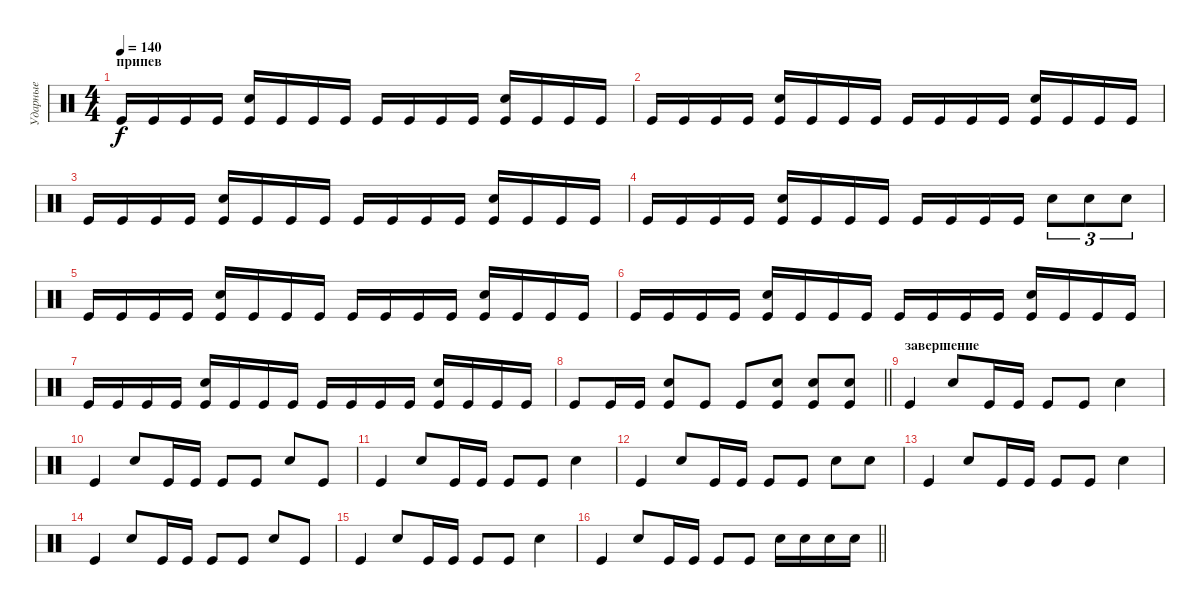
\track ("Ударные" "Ударные") {instrument percussion}
\staff {score}
\articulation defaults
\ts (4 4)
\section ("" "припев")
\tempo 140
\clef neutral
\ks c "Kick (hit)".16{dy f} "Kick (hit)".16 "Kick (hit)".16 "Kick (hit)".16
("Snare (hit) 2" "Kick (hit)").16 "Kick (hit)".16 "Kick (hit)".16 "Kick (hit)".16 "Kick (hit)".16 "Kick (hit)".16 "Kick (hit)".16 "Kick (hit)".16 ("Kick (hit)" "Snare (hit) 2").16 "Kick (hit)".16 "Kick (hit)".16 "Kick (hit)".16 |
"Kick (hit)".16 "Kick (hit)".16 "Kick (hit)".16 "Kick (hit)".16 ("Snare (hit) 2" "Kick (hit)").16 "Kick (hit)".16 "Kick (hit)".16 "Kick (hit)".16 "Kick (hit)".16 "Kick (hit)".16 "Kick (hit)".16 "Kick (hit)".16 ("Kick (hit)" "Snare (hit) 2").16 "Kick (hit)".16 "Kick (hit)".16 "Kick (hit)".16 |
"Kick (hit)".16 "Kick (hit)".16 "Kick (hit)".16 "Kick (hit)".16 ("Snare (hit) 2" "Kick (hit)").16 "Kick (hit)".16 "Kick (hit)".16 "Kick (hit)".16 "Kick (hit)".16 "Kick (hit)".16 "Kick (hit)".16 "Kick (hit)".16 ("Kick (hit)" "Snare (hit) 2").16 "Kick (hit)".16 "Kick (hit)".16 "Kick (hit)".16 |
"Kick (hit)".16 "Kick (hit)".16 "Kick (hit)".16 "Kick (hit)".16 ("Snare (hit) 2" "Kick (hit)").16 "Kick (hit)".16 "Kick (hit)".16 "Kick (hit)".16 "Kick (hit)".16 "Kick (hit)".16 "Kick (hit)".16 "Kick (hit)".16 "Snare (hit) 2".8{tu (3 2)} "Snare (hit) 2".8{tu (3 2)} "Snare (hit) 2".8{tu (3 2)} |
"Kick (hit)".16 "Kick (hit)".16 "Kick (hit)".16 "Kick (hit)".16 ("Snare (hit) 2" "Kick (hit)").16 "Kick (hit)".16 "Kick (hit)".16 "Kick (hit)".16 "Kick (hit)".16 "Kick (hit)".16 "Kick (hit)".16 "Kick (hit)".16 ("Kick (hit)" "Snare (hit) 2").16 "Kick (hit)".16 "Kick (hit)".16 "Kick (hit)".16 |
"Kick (hit)".16 "Kick (hit)".16 "Kick (hit)".16 "Kick (hit)".16 ("Snare (hit) 2" "Kick (hit)").16 "Kick (hit)".16 "Kick (hit)".16 "Kick (hit)".16 "Kick (hit)".16 "Kick (hit)".16 "Kick (hit)".16 "Kick (hit)".16 ("Kick (hit)" "Snare (hit) 2").16 "Kick (hit)".16 "Kick (hit)".16 "Kick (hit)".16 |
"Kick (hit)".16 "Kick (hit)".16 "Kick (hit)".16 "Kick (hit)".16 ("Snare (hit) 2" "Kick (hit)").16 "Kick (hit)".16 "Kick (hit)".16 "Kick (hit)".16 "Kick (hit)".16 "Kick (hit)".16 "Kick (hit)".16 "Kick (hit)".16 ("Kick (hit)" "Snare (hit) 2").16 "Kick (hit)".16 "Kick (hit)".16 "Kick (hit)".16 |
\barLineRight lightlight "Kick (hit)".8 "Kick (hit)".16 "Kick (hit)".16
("Kick (hit)" "Snare (hit) 2").8 "Kick (hit)".8 "Kick (hit)".8 ("Kick (hit)" "Snare (hit) 2").8 ("Kick (hit)" "Snare (hit) 2").8 ("Kick (hit)" "Snare (hit) 2").8 |
\section ("" "завершение")
"Kick (hit)".4 "Snare (hit) 2".8 "Kick (hit)".16 "Kick (hit)".16 "Kick (hit)".8 "Kick (hit)".8 "Snare (hit) 2".4 |
"Kick (hit)".4 "Snare (hit) 2".8 "Kick (hit)".16 "Kick (hit)".16 "Kick (hit)".8 "Kick (hit)".8 "Snare (hit) 2".8 "Kick (hit)".8 |
"Kick (hit)".4 "Snare (hit) 2".8 "Kick (hit)".16 "Kick (hit)".16 "Kick (hit)".8 "Kick (hit)".8 "Snare (hit) 2".4 |
"Kick (hit)".4 "Snare (hit) 2".8 "Kick (hit)".16 "Kick (hit)".16 "Kick (hit)".8 "Kick (hit)".8 "Snare (hit) 2".8 "Snare (hit) 2".8 |
"Kick (hit)".4 "Snare (hit) 2".8 "Kick (hit)".16 "Kick (hit)".16 "Kick (hit)".8 "Kick (hit)".8 "Snare (hit) 2".4 |
"Kick (hit)".4 "Snare (hit) 2".8 "Kick (hit)".16 "Kick (hit)".16 "Kick (hit)".8 "Kick (hit)".8 "Snare (hit) 2".8 "Kick (hit)".8 |
"Kick (hit)".4 "Snare (hit) 2".8 "Kick (hit)".16 "Kick (hit)".16 "Kick (hit)".8 "Kick (hit)".8 "Snare (hit) 2".4 |
\barLineRight lightlight "Kick (hit)".4 "Snare (hit) 2".8 "Kick (hit)".16 "Kick (hit)".16 "Kick (hit)".8 "Kick (hit)".8 "Snare (hit) 2".16 "Snare (hit) 2".16 "Snare (hit) 2".16 "Snare (hit) 2".16
